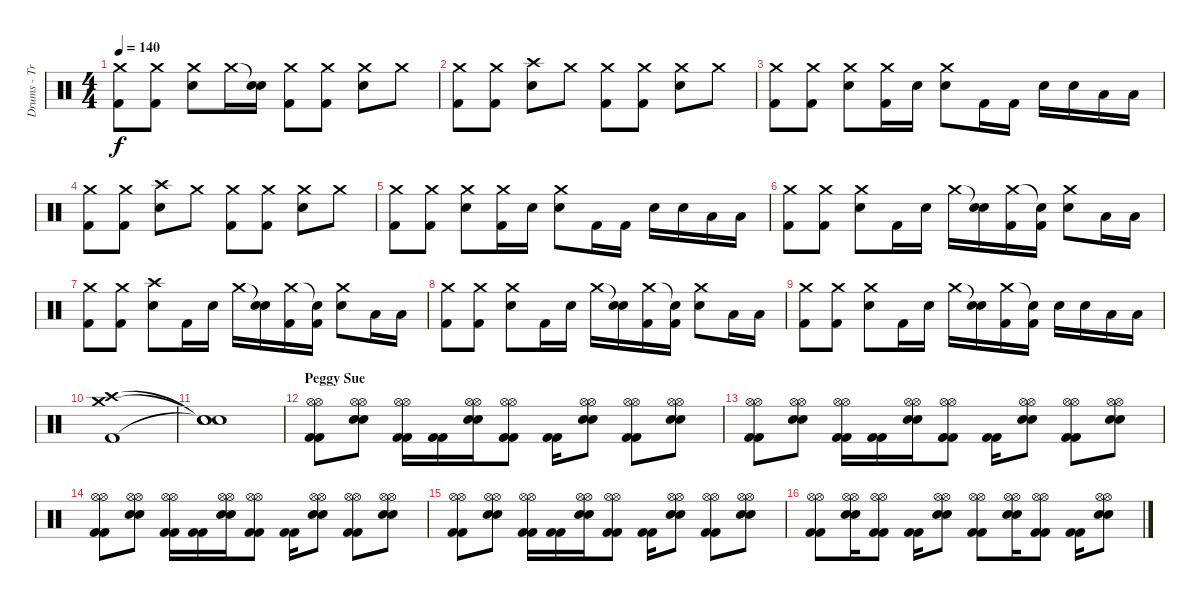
\track ("Drums - Travis Barker" "Drums - Tr") {instrument percussion}
\staff {score}
\articulation defaults
\ts (4 4)
\tempo 140
\clef neutral
\ks c
("Crash medium (hit)" "Kick (hit) 2").8{dy f} ("Crash medium (hit)" "Kick (hit) 2").8 ("Crash medium (hit)" "Snare (hit) 2").8 "Crash medium (hit)".16 ("Snare (hit)"{t} "Snare (hit) 2").16 ("Crash medium (hit)" "Kick (hit) 2").8 ("Crash medium (hit)" "Kick (hit) 2").8 ("Crash medium (hit)" "Snare (hit) 2").8 "Crash medium (hit)".8 |
("Crash medium (hit)" "Kick (hit) 2").8 ("Crash medium (hit)" "Kick (hit) 2").8 ("Crash high (hit)" "Snare (hit) 2").8 "Crash medium (hit)".8 ("Crash medium (hit)" "Kick (hit) 2").8 ("Crash medium (hit)" "Kick (hit) 2").8 ("Crash medium (hit)" "Snare (hit) 2").8 "Crash medium (hit)".8 |
("Crash medium (hit)" "Kick (hit) 2").8 ("Crash medium (hit)" "Kick (hit) 2").8 ("Crash medium (hit)" "Snare (hit) 2").8 ("Crash medium (hit)" "Kick (hit) 2").16 "Snare (hit) 2".16 ("Crash medium (hit)" "Snare (hit) 2").8 "Kick (hit) 2".16 "Kick (hit) 2".16 "Snare (hit) 2".16 "Snare (hit) 2".16 "Low Tom (hit)".16 "Low Tom (hit)".16 |
("Crash medium (hit)" "Kick (hit) 2").8 ("Crash medium (hit)" "Kick (hit) 2").8 ("Crash high (hit)" "Snare (hit) 2").8 "Crash medium (hit)".8 ("Crash medium (hit)" "Kick (hit) 2").8 ("Crash medium (hit)" "Kick (hit) 2").8 ("Crash medium (hit)" "Snare (hit) 2").8 "Crash medium (hit)".8 |
("Crash medium (hit)" "Kick (hit) 2").8 ("Crash medium (hit)" "Kick (hit) 2").8 ("Crash medium (hit)" "Snare (hit) 2").8 ("Crash medium (hit)" "Kick (hit) 2").16 "Snare (hit) 2".16 ("Crash medium (hit)" "Snare (hit) 2").8 "Kick (hit) 2".16 "Kick (hit) 2".16 "Snare (hit) 2".16 "Snare (hit) 2".16 "Low Tom (hit)".16 "Low Tom (hit)".16 |
("Crash medium (hit)" "Kick (hit) 2").8 ("Crash medium (hit)" "Kick (hit) 2").8 ("Crash medium (hit)" "Snare (hit) 2").8 "Kick (hit) 2".16 "Snare (hit) 2".16 "Crash medium (hit)".16 ("Snare (hit)"{t} "Snare (hit) 2").16 ("Crash medium (hit)" "Kick (hit) 2").16 ("Snare (hit)"{t} "Kick (hit) 2").16 ("Crash medium (hit)" "Snare (hit) 2").8 "Low Floor Tom (hit)".16 "Low Floor Tom (hit)".16 |
("Crash medium (hit)" "Kick (hit) 2").8 ("Crash medium (hit)" "Kick (hit) 2").8 ("Crash high (hit)" "Snare (hit) 2").8 "Kick (hit) 2".16 "Snare (hit) 2".16 "Crash medium (hit)".16 ("Snare (hit)"{t} "Snare (hit) 2").16 ("Crash medium (hit)" "Kick (hit) 2").16 ("Snare (hit)"{t} "Kick (hit) 2").16 ("Crash medium (hit)" "Snare (hit) 2").8 "Low Floor Tom (hit)".16 "Low Floor Tom (hit)".16 |
("Crash medium (hit)" "Kick (hit) 2").8 ("Crash medium (hit)" "Kick (hit) 2").8 ("Crash medium (hit)" "Snare (hit) 2").8 "Kick (hit) 2".16 "Snare (hit) 2".16 "Crash medium (hit)".16 ("Snare (hit)"{t} "Snare (hit) 2").16 ("Crash medium (hit)" "Kick (hit) 2").16 ("Snare (hit)"{t} "Kick (hit) 2").16 ("Crash medium (hit)" "Snare (hit) 2").8 "Low Floor Tom (hit)".16 "Low Floor Tom (hit)".16 |
("Crash medium (hit)" "Kick (hit) 2").8 ("Crash medium (hit)" "Kick (hit) 2").8 ("Crash medium (hit)" "Snare (hit) 2").8 "Kick (hit) 2".16 "Snare (hit) 2".16 "Crash medium (hit)".16 ("Snare (hit)"{t} "Snare (hit) 2").16 ("Crash medium (hit)" "Kick (hit) 2").16 ("Snare (hit)"{t} "Kick (hit) 2").16 "Snare (hit) 2".16 "Snare (hit) 2".16 "Low Floor Tom (hit)".16 "Low Floor Tom (hit)".16 |
("Crash medium (hit)" "Crash high (hit)" "Kick (hit) 2").1 |
("Snare (hit)"{t} "Snare (hit)"{t} "Snare (hit)"{t}).1 |
\section ("" "Peggy Sue")
("Kick (hit) 2" "Kick (hit) 2" "Hi-Hat (open)" "Hi-Hat (open)").8 ("Snare (hit) 2" "Snare (hit) 2" "Hi-Hat (open)" "Hi-Hat (open)").8 ("Kick (hit) 2" "Kick (hit) 2" "Hi-Hat (open)" "Hi-Hat (open)").16 ("Kick (hit) 2" "Kick (hit) 2").16 ("Snare (hit) 2" "Snare (hit) 2" "Hi-Hat (open)" "Hi-Hat (open)").16 ("Kick (hit) 2" "Kick (hit) 2" "Hi-Hat (open)" "Hi-Hat (open)").8 ("Kick (hit) 2" "Kick (hit) 2").16 ("Snare (hit) 2" "Snare (hit) 2" "Hi-Hat (open)" "Hi-Hat (open)").8 ("Kick (hit) 2" "Kick (hit) 2" "Hi-Hat (open)" "Hi-Hat (open)").8 ("Snare (hit) 2" "Snare (hit) 2" "Hi-Hat (open)" "Hi-Hat (open)").8 |
("Kick (hit) 2" "Kick (hit) 2" "Hi-Hat (open)" "Hi-Hat (open)").8 ("Snare (hit) 2" "Snare (hit) 2" "Hi-Hat (open)" "Hi-Hat (open)").8 ("Kick (hit) 2" "Kick (hit) 2" "Hi-Hat (open)" "Hi-Hat (open)").16 ("Kick (hit) 2" "Kick (hit) 2").16 ("Snare (hit) 2" "Snare (hit) 2" "Hi-Hat (open)" "Hi-Hat (open)").16 ("Kick (hit) 2" "Kick (hit) 2" "Hi-Hat (open)" "Hi-Hat (open)").8 ("Kick (hit) 2" "Kick (hit) 2").16 ("Snare (hit) 2" "Snare (hit) 2" "Hi-Hat (open)" "Hi-Hat (open)").8 ("Kick (hit) 2" "Kick (hit) 2" "Hi-Hat (open)" "Hi-Hat (open)").8 ("Snare (hit) 2" "Snare (hit) 2" "Hi-Hat (open)" "Hi-Hat (open)").8 |
("Kick (hit) 2" "Kick (hit) 2" "Hi-Hat (open)" "Hi-Hat (open)").8 ("Snare (hit) 2" "Snare (hit) 2" "Hi-Hat (open)" "Hi-Hat (open)").8 ("Kick (hit) 2" "Kick (hit) 2" "Hi-Hat (open)" "Hi-Hat (open)").16 ("Kick (hit) 2" "Kick (hit) 2").16 ("Snare (hit) 2" "Snare (hit) 2" "Hi-Hat (open)" "Hi-Hat (open)").16 ("Kick (hit) 2" "Kick (hit) 2" "Hi-Hat (open)" "Hi-Hat (open)").8 ("Kick (hit) 2" "Kick (hit) 2").16 ("Snare (hit) 2" "Snare (hit) 2" "Hi-Hat (open)" "Hi-Hat (open)").8 ("Kick (hit) 2" "Kick (hit) 2" "Hi-Hat (open)" "Hi-Hat (open)").8 ("Snare (hit) 2" "Snare (hit) 2" "Hi-Hat (open)" "Hi-Hat (open)").8 |
("Kick (hit) 2" "Kick (hit) 2" "Hi-Hat (open)" "Hi-Hat (open)").8 ("Snare (hit) 2" "Snare (hit) 2" "Hi-Hat (open)" "Hi-Hat (open)").8 ("Kick (hit) 2" "Kick (hit) 2" "Hi-Hat (open)" "Hi-Hat (open)").16 ("Kick (hit) 2" "Kick (hit) 2").16 ("Snare (hit) 2" "Snare (hit) 2" "Hi-Hat (open)" "Hi-Hat (open)").16 ("Kick (hit) 2" "Kick (hit) 2" "Hi-Hat (open)" "Hi-Hat (open)").8 ("Kick (hit) 2" "Kick (hit) 2").16 ("Snare (hit) 2" "Snare (hit) 2" "Hi-Hat (open)" "Hi-Hat (open)").8 ("Kick (hit) 2" "Kick (hit) 2" "Hi-Hat (open)" "Hi-Hat (open)").8 ("Snare (hit) 2" "Snare (hit) 2" "Hi-Hat (open)" "Hi-Hat (open)").8 |
("Kick (hit) 2" "Kick (hit) 2" "Hi-Hat (open)" "Hi-Hat (open)").8 ("Snare (hit) 2" "Snare (hit) 2" "Hi-Hat (open)" "Hi-Hat (open)").16 ("Kick (hit) 2" "Kick (hit) 2" "Hi-Hat (open)" "Hi-Hat (open)").8 ("Kick (hit) 2" "Kick (hit) 2").16 ("Snare (hit) 2" "Snare (hit) 2" "Hi-Hat (open)" "Hi-Hat (open)").8 ("Kick (hit) 2" "Kick (hit) 2" "Hi-Hat (open)" "Hi-Hat (open)").8 ("Snare (hit) 2" "Snare (hit) 2" "Hi-Hat (open)" "Hi-Hat (open)").16 ("Kick (hit) 2" "Kick (hit) 2" "Hi-Hat (open)" "Hi-Hat (open)").8 ("Kick (hit) 2" "Kick (hit) 2").16 ("Snare (hit) 2" "Snare (hit) 2" "Hi-Hat (open)" "Hi-Hat (open)").8
